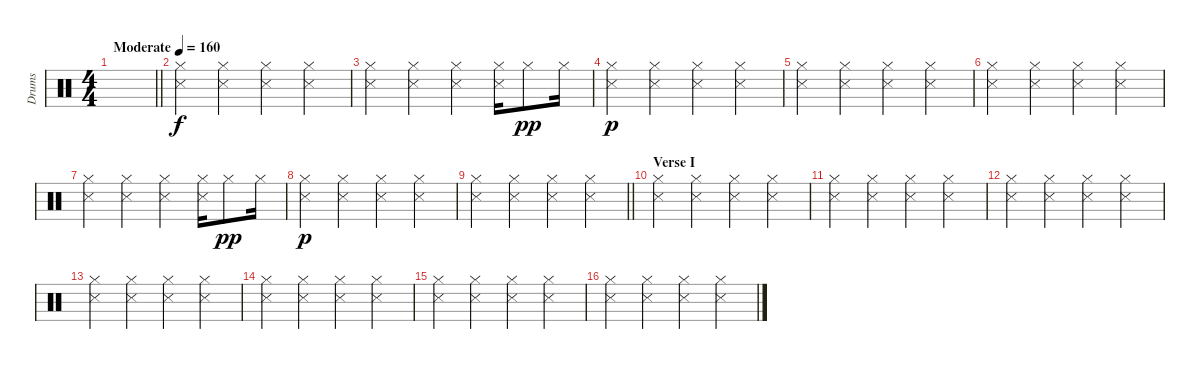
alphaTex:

\track ("Drums" "Drums") {instrument percussion}
\staff {score}
\articulation defaults
\ts (4 4)
\tempo (160 "Moderate")
\clef neutral
\barLineRight lightlight
\ks c
|
("Hi-Hat (closed)" "Snare (side stick) 3").4 ("Hi-Hat (closed)" "Snare (side stick) 3").4 ("Hi-Hat (closed)" "Snare (side stick) 3").4 ("Hi-Hat (closed)" "Snare (side stick) 3").4 |
("Hi-Hat (closed)" "Snare (side stick) 3").4 ("Hi-Hat (closed)" "Snare (side stick) 3").4 ("Hi-Hat (closed)" "Snare (side stick) 3").4 ("Hi-Hat (closed)" "Snare (side stick) 3").16 "Hi-Hat (closed)".8{dy pp} "Hi-Hat (closed)".16 |
("Hi-Hat (closed)" "Snare (side stick) 3").4{dy p} ("Hi-Hat (closed)" "Snare (side stick) 3").4 ("Hi-Hat (closed)" "Snare (side stick) 3").4 ("Hi-Hat (closed)" "Snare (side stick) 3").4 |
("Hi-Hat (closed)" "Snare (side stick) 3").4 ("Hi-Hat (closed)" "Snare (side stick) 3").4 ("Hi-Hat (closed)" "Snare (side stick) 3").4 ("Hi-Hat (closed)" "Snare (side stick) 3").4 |
("Hi-Hat (closed)" "Snare (side stick) 3").4 ("Hi-Hat (closed)" "Snare (side stick) 3").4 ("Hi-Hat (closed)" "Snare (side stick) 3").4 ("Hi-Hat (closed)" "Snare (side stick) 3").4 |
("Hi-Hat (closed)" "Snare (side stick) 3").4 ("Hi-Hat (closed)" "Snare (side stick) 3").4 ("Hi-Hat (closed)" "Snare (side stick) 3").4 ("Hi-Hat (closed)" "Snare (side stick) 3").16 "Hi-Hat (closed)".8{dy pp} "Hi-Hat (closed)".16 |
("Hi-Hat (closed)" "Snare (side stick) 3").4{dy p} ("Hi-Hat (closed)" "Snare (side stick) 3").4 ("Hi-Hat (closed)" "Snare (side stick) 3").4 ("Hi-Hat (closed)" "Snare (side stick) 3").4 |
\barLineRight lightlight
("Hi-Hat (closed)" "Snare (side stick) 3").4 ("Hi-Hat (closed)" "Snare (side stick) 3").4 ("Hi-Hat (closed)" "Snare (side stick) 3").4 ("Hi-Hat (closed)" "Snare (side stick) 3").4 |
\section ("" "Verse I")
("Hi-Hat (closed)" "Snare (side stick) 3").4 ("Hi-Hat (closed)" "Snare (side stick) 3").4 ("Hi-Hat (closed)" "Snare (side stick) 3").4 ("Hi-Hat (closed)" "Snare (side stick) 3").4 |
("Hi-Hat (closed)" "Snare (side stick) 3").4 ("Hi-Hat (closed)" "Snare (side stick) 3").4 ("Hi-Hat (closed)" "Snare (side stick) 3").4 ("Hi-Hat (closed)" "Snare (side stick) 3").4 |
("Hi-Hat (closed)" "Snare (side stick) 3").4 ("Hi-Hat (closed)" "Snare (side stick) 3").4 ("Hi-Hat (closed)" "Snare (side stick) 3").4 ("Hi-Hat (closed)" "Snare (side stick) 3").4 |
("Hi-Hat (closed)" "Snare (side stick) 3").4 ("Hi-Hat (closed)" "Snare (side stick) 3").4 ("Hi-Hat (closed)" "Snare (side stick) 3").4 ("Hi-Hat (closed)" "Snare (side stick) 3").4 |
("Hi-Hat (closed)" "Snare (side stick) 3").4 ("Hi-Hat (closed)" "Snare (side stick) 3").4 ("Hi-Hat (closed)" "Snare (side stick) 3").4 ("Hi-Hat (closed)" "Snare (side stick) 3").4 |
("Hi-Hat (closed)" "Snare (side stick) 3").4 ("Hi-Hat (closed)" "Snare (side stick) 3").4 ("Hi-Hat (closed)" "Snare (side stick) 3").4 ("Hi-Hat (closed)" "Snare (side stick) 3").4 |
("Hi-Hat (closed)" "Snare (side stick) 3").4 ("Hi-Hat (closed)" "Snare (side stick) 3").4 ("Hi-Hat (closed)" "Snare (side stick) 3").4 ("Hi-Hat (closed)" "Snare (side stick) 3").4
